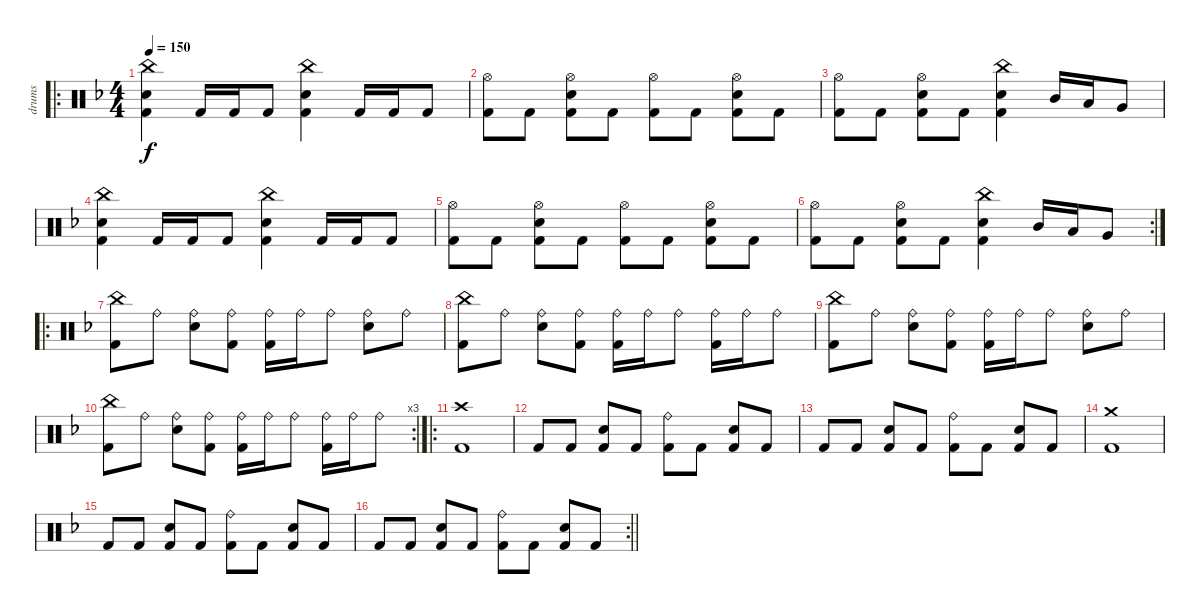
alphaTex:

\track ("drums" "drums") {instrument percussion}
\staff {score}
\articulation defaults
\ro
\ts (4 4)
\tempo 150
\clef neutral
\ks dminor
("China (hit)" "Electric Snare (hit)" "Kick (hit) 2").4{dy f} "Kick (hit) 2".16 "Kick (hit) 2".16 "Kick (hit) 2".8 ("China (hit)" "Electric Snare (hit)" "Kick (hit) 2").4 "Kick (hit) 2".16 "Kick (hit) 2".16 "Kick (hit) 2".8 |
("Hi-Hat (open)" "Kick (hit) 2").8 "Kick (hit) 2".8 ("Hi-Hat (open)" "Electric Snare (hit)" "Kick (hit) 2").8 "Kick (hit) 2".8 ("Hi-Hat (open)" "Kick (hit) 2").8 "Kick (hit) 2".8 ("Hi-Hat (open)" "Electric Snare (hit)" "Kick (hit) 2").8 "Kick (hit) 2".8 |
("Hi-Hat (open)" "Kick (hit) 2").8 "Kick (hit) 2".8 ("Hi-Hat (open)" "Electric Snare (hit)" "Kick (hit) 2").8 "Kick (hit) 2".8 ("China (hit)" "Electric Snare (hit)" "Kick (hit) 2").4 "Mid Tom (hit)".16 "Low Tom (hit)".16 "Very Low Tom (hit)".8 |
("China (hit)" "Electric Snare (hit)" "Kick (hit) 2").4 "Kick (hit) 2".16 "Kick (hit) 2".16 "Kick (hit) 2".8 ("China (hit)" "Electric Snare (hit)" "Kick (hit) 2").4 "Kick (hit) 2".16 "Kick (hit) 2".16 "Kick (hit) 2".8 |
("Hi-Hat (open)" "Kick (hit) 2").8 "Kick (hit) 2".8 ("Hi-Hat (open)" "Electric Snare (hit)" "Kick (hit) 2").8 "Kick (hit) 2".8 ("Hi-Hat (open)" "Kick (hit) 2").8 "Kick (hit) 2".8 ("Hi-Hat (open)" "Electric Snare (hit)" "Kick (hit) 2").8 "Kick (hit) 2".8 |
\rc 2
("Hi-Hat (open)" "Kick (hit) 2").8 "Kick (hit) 2".8 ("Hi-Hat (open)" "Electric Snare (hit)" "Kick (hit) 2").8 "Kick (hit) 2".8 ("China (hit)" "Electric Snare (hit)" "Kick (hit) 2").4 "Mid Tom (hit)".16 "Low Tom (hit)".16 "Very Low Tom (hit)".8 |
\ro
("China (hit)" "Kick (hit) 2").8 "Ride (bell)".8 ("Ride (bell)" "Electric Snare (hit)").8 ("Ride (bell)" "Kick (hit) 2").8 ("Ride (bell)" "Kick (hit) 2").16 "Ride (bell)".16 "Ride (bell)".8 ("Ride (bell)" "Electric Snare (hit)").8 "Ride (bell)".8 |
("China (hit)" "Kick (hit) 2").8 "Ride (bell)".8 ("Ride (bell)" "Electric Snare (hit)").8 ("Ride (bell)" "Kick (hit) 2").8 ("Ride (bell)" "Kick (hit) 2").16 "Ride (bell)".16 "Ride (bell)".8 ("Ride (bell)" "Kick (hit) 2").16 "Ride (bell)".16 "Ride (bell)".8 |
("China (hit)" "Kick (hit) 2").8 "Ride (bell)".8 ("Ride (bell)" "Electric Snare (hit)").8 ("Ride (bell)" "Kick (hit) 2").8 ("Ride (bell)" "Kick (hit) 2").16 "Ride (bell)".16 "Ride (bell)".8 ("Ride (bell)" "Electric Snare (hit)").8 "Ride (bell)".8 |
\rc 3
("China (hit)" "Kick (hit) 2").8 "Ride (bell)".8 ("Ride (bell)" "Electric Snare (hit)").8 ("Ride (bell)" "Kick (hit) 2").8 ("Ride (bell)" "Kick (hit) 2").16 "Ride (bell)".16 "Ride (bell)".8 ("Ride (bell)" "Kick (hit) 2").16 "Ride (bell)".16 "Ride (bell)".8 |
\ro
("Crash high (hit)" "Kick (hit) 2").1 |
"Kick (hit) 2".8 "Kick (hit) 2".8 ("Electric Snare (hit)" "Kick (hit) 2").8 "Kick (hit) 2".8 ("Ride (bell)" "Kick (hit) 2").8 "Kick (hit) 2".8 ("Electric Snare (hit)" "Kick (hit) 2").8 "Kick (hit) 2".8 |
"Kick (hit) 2".8 "Kick (hit) 2".8 ("Electric Snare (hit)" "Kick (hit) 2").8 "Kick (hit) 2".8 ("Ride (bell)" "Kick (hit) 2").8 "Kick (hit) 2".8 ("Electric Snare (hit)" "Kick (hit) 2").8 "Kick (hit) 2".8 |
("Crash medium (hit)" "Kick (hit) 2").1 |
"Kick (hit) 2".8 "Kick (hit) 2".8 ("Electric Snare (hit)" "Kick (hit) 2").8 "Kick (hit) 2".8 ("Ride (bell)" "Kick (hit) 2").8 "Kick (hit) 2".8 ("Electric Snare (hit)" "Kick (hit) 2").8 "Kick (hit) 2".8 |
\rc 2
\barLineRight lightlight "Kick (hit) 2".8 "Kick (hit) 2".8
("Electric Snare (hit)" "Kick (hit) 2").8 "Kick (hit) 2".8 ("Ride (bell)" "Kick (hit) 2").8 "Kick (hit) 2".8 ("Electric Snare (hit)" "Kick (hit) 2").8 "Kick (hit) 2".8
